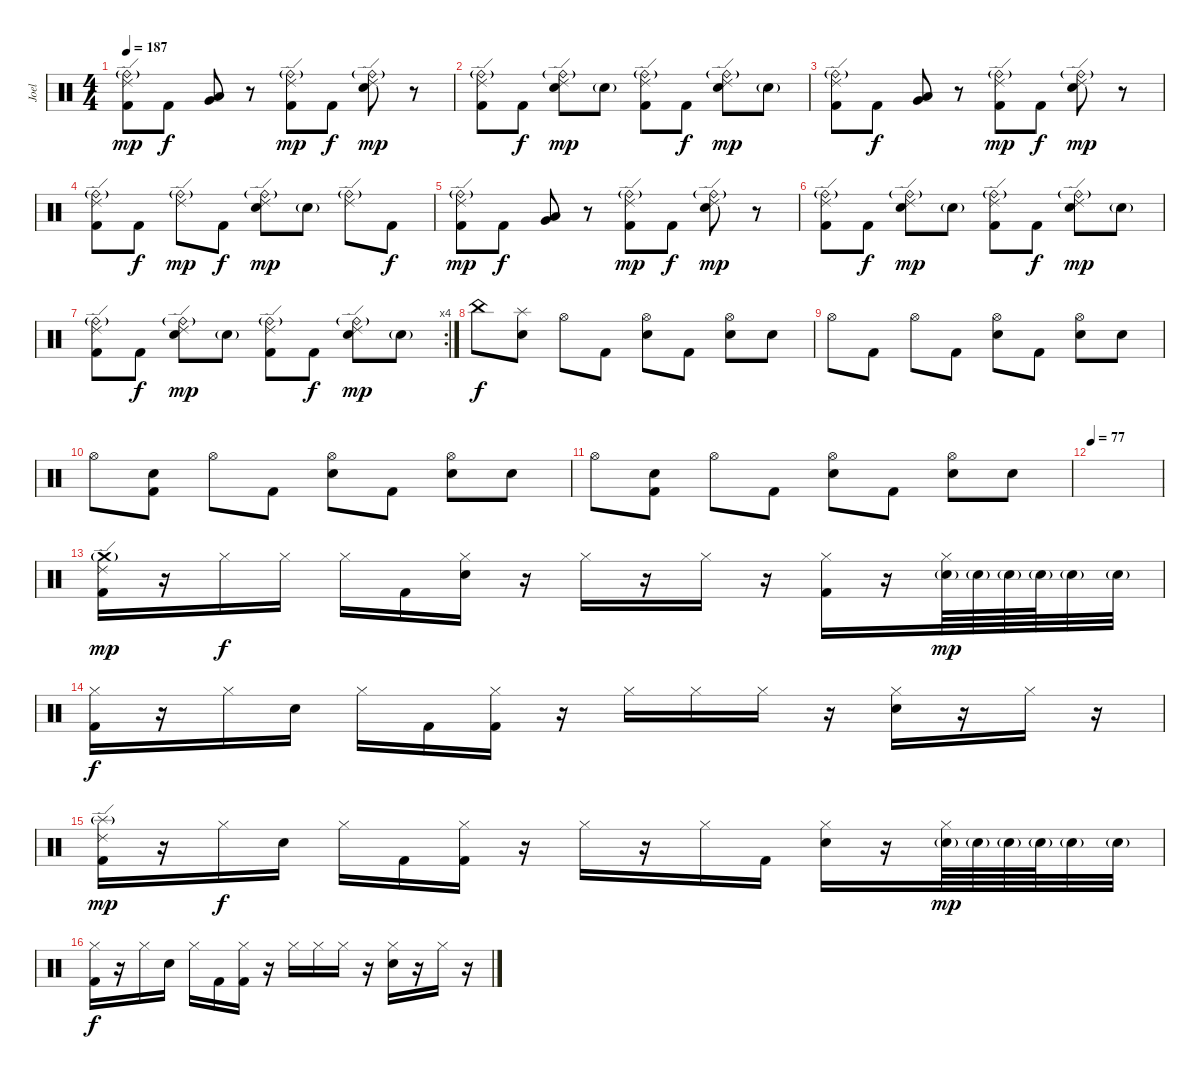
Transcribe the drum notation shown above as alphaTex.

\track ("Joel" "Joel") {instrument percussion}
\staff {score}
\articulation defaults
\ts (4 4)
\tempo 187
\clef neutral
\ks c
("Ride (bell)"{g} "Ride (edge) 2" "Kick (hit) 2").8{dy mp} "Kick (hit) 2".8{dy f} ("Low Tom (hit)" "Very Low Tom (hit)").8 r.8 ("Ride (bell)"{g} "Ride (edge) 2" "Kick (hit) 2").8{dy mp} "Kick (hit) 2".8{dy f} ("Ride (bell)"{g} "Ride (edge) 2" "Snare (hit) 2").8{dy mp} r.8 |
("Ride (bell)"{g} "Ride (edge) 2" "Kick (hit) 2").8 "Kick (hit) 2".8{dy f} ("Ride (bell)"{g} "Ride (edge) 2" "Snare (hit) 2").8{dy mp} "Snare (hit) 2"{g}.8 ("Ride (bell)"{g} "Ride (edge) 2" "Kick (hit) 2").8 "Kick (hit) 2".8{dy f} ("Ride (bell)"{g} "Ride (edge) 2" "Snare (hit) 2").8{dy mp} "Snare (hit) 2"{g}.8 |
("Ride (bell)"{g} "Ride (edge) 2" "Kick (hit) 2").8 "Kick (hit) 2".8{dy f} ("Low Tom (hit)" "Very Low Tom (hit)").8 r.8 ("Ride (bell)"{g} "Ride (edge) 2" "Kick (hit) 2").8{dy mp} "Kick (hit) 2".8{dy f} ("Ride (bell)"{g} "Ride (edge) 2" "Snare (hit) 2").8{dy mp} r.8 |
("Ride (bell)"{g} "Ride (edge) 2" "Kick (hit) 2").8 "Kick (hit) 2".8{dy f} ("Ride (bell)"{g} "Ride (edge) 2").8{dy mp} "Kick (hit) 2".8{dy f} ("Ride (bell)"{g} "Ride (edge) 2" "Snare (hit) 2").8{dy mp} "Snare (hit) 2"{g}.8 ("Ride (bell)"{g} "Ride (edge) 2").8 "Kick (hit) 2".8{dy f} |
("Ride (bell)"{g} "Ride (edge) 2" "Kick (hit) 2").8{dy mp} "Kick (hit) 2".8{dy f} ("Low Tom (hit)" "Very Low Tom (hit)").8 r.8 ("Ride (bell)"{g} "Ride (edge) 2" "Kick (hit) 2").8{dy mp} "Kick (hit) 2".8{dy f} ("Ride (bell)"{g} "Ride (edge) 2" "Snare (hit) 2").8{dy mp} r.8 |
("Ride (bell)"{g} "Ride (edge) 2" "Kick (hit) 2").8 "Kick (hit) 2".8{dy f} ("Ride (bell)"{g} "Ride (edge) 2" "Snare (hit) 2").8{dy mp} "Snare (hit) 2"{g}.8 ("Ride (bell)"{g} "Ride (edge) 2" "Kick (hit) 2").8 "Kick (hit) 2".8{dy f} ("Ride (bell)"{g} "Ride (edge) 2" "Snare (hit) 2").8{dy mp} "Snare (hit) 2"{g}.8 |
\rc 4
("Ride (bell)"{g} "Ride (edge) 2" "Kick (hit) 2").8 "Kick (hit) 2".8{dy f} ("Ride (bell)"{g} "Ride (edge) 2" "Snare (hit) 2").8{dy mp} "Snare (hit) 2"{g}.8 ("Ride (bell)"{g} "Ride (edge) 2" "Kick (hit) 2").8 "Kick (hit) 2".8{dy f} ("Ride (bell)"{g} "Ride (edge) 2" "Snare (hit) 2").8{dy mp} "Snare (hit) 2"{g}.8 |
"China (hit)".8{dy f} ("Splash (hit)" "Snare (hit) 2").8 "Hi-Hat (open)".8 "Kick (hit) 2".8 ("Hi-Hat (open)" "Snare (hit) 2").8 "Kick (hit) 2".8 ("Hi-Hat (open)" "Snare (hit) 2").8 "Snare (hit) 2".8 |
"Hi-Hat (open)".8 "Kick (hit) 2".8 "Hi-Hat (open)".8 "Kick (hit) 2".8 ("Hi-Hat (open)" "Snare (hit) 2").8 "Kick (hit) 2".8 ("Hi-Hat (open)" "Snare (hit) 2").8 "Snare (hit) 2".8 |
"Hi-Hat (open)".8 ("Snare (hit) 2" "Kick (hit) 2").8 "Hi-Hat (open)".8 "Kick (hit) 2".8 ("Hi-Hat (open)" "Snare (hit) 2").8 "Kick (hit) 2".8 ("Hi-Hat (open)" "Snare (hit) 2").8 "Snare (hit) 2".8 |
"Hi-Hat (open)".8 ("Snare (hit) 2" "Kick (hit) 2").8 "Hi-Hat (open)".8 "Kick (hit) 2".8 ("Hi-Hat (open)" "Snare (hit) 2").8 "Kick (hit) 2".8 ("Hi-Hat (open)" "Snare (hit) 2").8 "Snare (hit) 2".8 |
\tempo 77
|
("Ride (edge) 2" "Crash medium (hit)"{g} "Kick (hit) 2").16{dy mp} r.16 "Hi-Hat (closed)".16{dy f} "Hi-Hat (closed)".16 "Hi-Hat (closed)".16 "Kick (hit) 2".16 ("Hi-Hat (closed)" "Snare (hit) 2").16 r.16 "Hi-Hat (closed)".16 r.16 "Hi-Hat (closed)".16 r.16 ("Hi-Hat (closed)" "Kick (hit) 2").16 r.16 ("Hi-Hat (closed)" "Snare (hit) 2"{g}).64{dy mp} "Snare (hit) 2"{g}.64 "Snare (hit) 2"{g}.64 "Snare (hit) 2"{g}.64 "Snare (hit) 2"{g}.32 "Snare (hit) 2"{g}.32 |
("Hi-Hat (closed)" "Kick (hit) 2").16{dy f} r.16 "Hi-Hat (closed)".16 "Snare (hit) 2".16 "Hi-Hat (closed)".16 "Kick (hit) 2".16 ("Hi-Hat (closed)" "Kick (hit) 2").16 r.16 "Hi-Hat (closed)".16 "Hi-Hat (closed)".16 "Hi-Hat (closed)".16 r.16 ("Hi-Hat (closed)" "Snare (hit) 2").16 r.16 "Hi-Hat (closed)".16 r.16 |
("Ride (edge) 2" "Splash (hit)"{g} "Kick (hit) 2").16{dy mp} r.16 "Hi-Hat (closed)".16{dy f} "Snare (hit) 2".16 "Hi-Hat (closed)".16 "Kick (hit) 2".16 ("Hi-Hat (closed)" "Kick (hit) 2").16 r.16 "Hi-Hat (closed)".16 r.16 "Hi-Hat (closed)".16 "Kick (hit) 2".16 ("Hi-Hat (closed)" "Snare (hit) 2").16 r.16 ("Hi-Hat (closed)" "Snare (hit) 2"{g}).64{dy mp} "Snare (hit) 2"{g}.64 "Snare (hit) 2"{g}.64 "Snare (hit) 2"{g}.64 "Snare (hit) 2"{g}.32 "Snare (hit) 2"{g}.32 |
("Hi-Hat (closed)" "Kick (hit) 2").16{dy f} r.16 "Hi-Hat (closed)".16 "Snare (hit) 2".16 "Hi-Hat (closed)".16 "Kick (hit) 2".16 ("Hi-Hat (closed)" "Kick (hit) 2").16 r.16 "Hi-Hat (closed)".16 "Hi-Hat (closed)".16 "Hi-Hat (closed)".16 r.16 ("Hi-Hat (closed)" "Snare (hit) 2").16 r.16 "Hi-Hat (closed)".16 r.16
